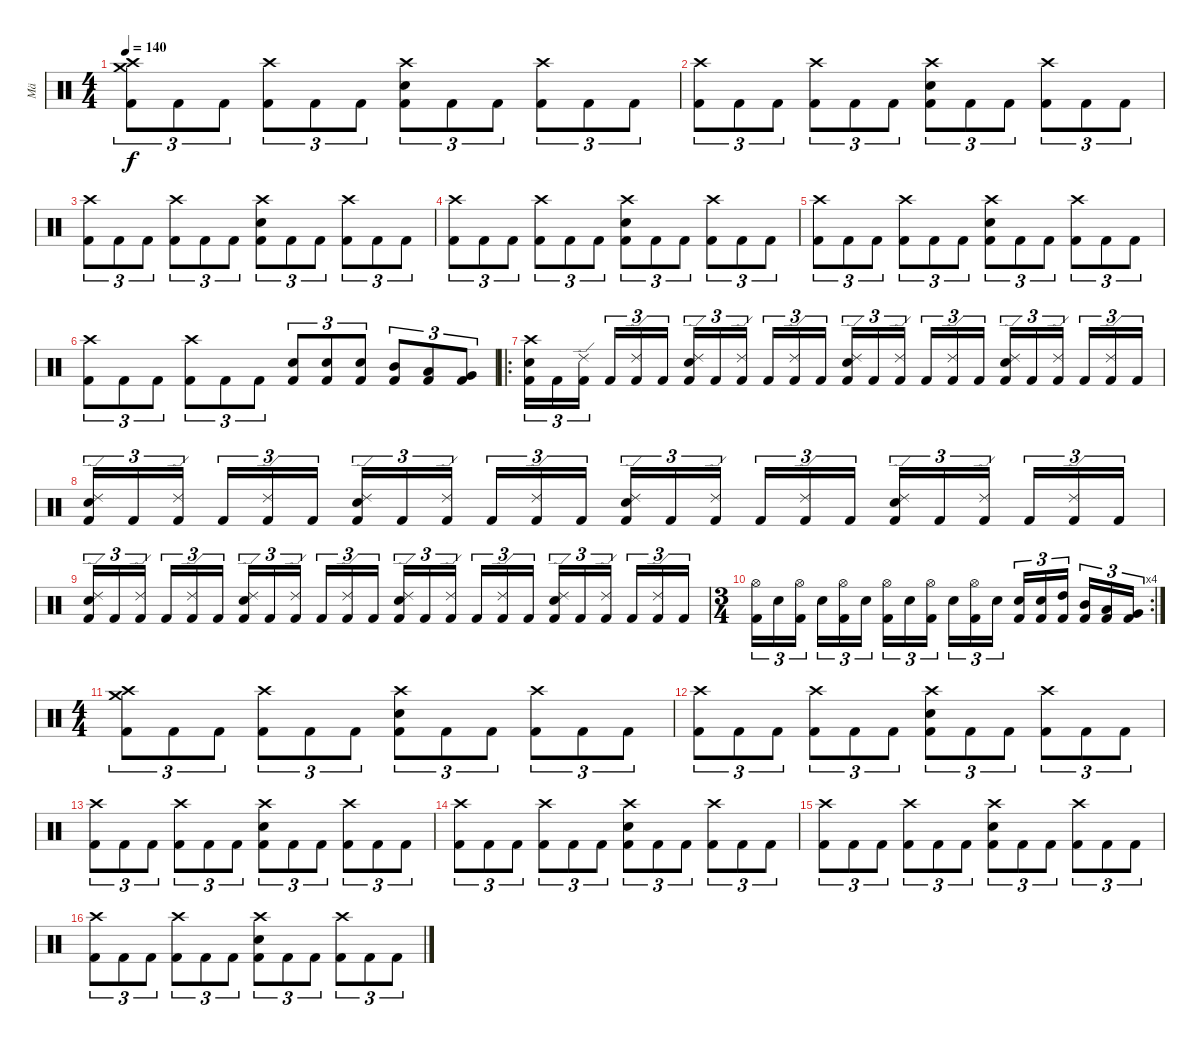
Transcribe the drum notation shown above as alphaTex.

\track ("Mä" "Mä") {instrument percussion}
\staff {score}
\articulation defaults
\ts (4 4)
\tempo 140
\clef neutral
\ks c
("Crash medium (hit)" "Crash high (hit)" "Kick (hit) 2").8{tu (3 2) dy f} "Kick (hit) 2".8{tu (3 2)} "Kick (hit) 2".8{tu (3 2)} ("Crash high (hit)" "Kick (hit) 2").8{tu (3 2)} "Kick (hit) 2".8{tu (3 2)} "Kick (hit) 2".8{tu (3 2)} ("Crash high (hit)" "Snare (hit) 2" "Kick (hit) 2").8{tu (3 2)} "Kick (hit) 2".8{tu (3 2)} "Kick (hit) 2".8{tu (3 2)} ("Crash high (hit)" "Kick (hit) 2").8{tu (3 2)} "Kick (hit) 2".8{tu (3 2)} "Kick (hit) 2".8{tu (3 2)} |
("Crash high (hit)" "Kick (hit) 2").8{tu (3 2)} "Kick (hit) 2".8{tu (3 2)} "Kick (hit) 2".8{tu (3 2)} ("Crash high (hit)" "Kick (hit) 2").8{tu (3 2)} "Kick (hit) 2".8{tu (3 2)} "Kick (hit) 2".8{tu (3 2)} ("Crash high (hit)" "Snare (hit) 2" "Kick (hit) 2").8{tu (3 2)} "Kick (hit) 2".8{tu (3 2)} "Kick (hit) 2".8{tu (3 2)} ("Crash high (hit)" "Kick (hit) 2").8{tu (3 2)} "Kick (hit) 2".8{tu (3 2)} "Kick (hit) 2".8{tu (3 2)} |
("Crash high (hit)" "Kick (hit) 2").8{tu (3 2)} "Kick (hit) 2".8{tu (3 2)} "Kick (hit) 2".8{tu (3 2)} ("Crash high (hit)" "Kick (hit) 2").8{tu (3 2)} "Kick (hit) 2".8{tu (3 2)} "Kick (hit) 2".8{tu (3 2)} ("Crash high (hit)" "Snare (hit) 2" "Kick (hit) 2").8{tu (3 2)} "Kick (hit) 2".8{tu (3 2)} "Kick (hit) 2".8{tu (3 2)} ("Crash high (hit)" "Kick (hit) 2").8{tu (3 2)} "Kick (hit) 2".8{tu (3 2)} "Kick (hit) 2".8{tu (3 2)} |
("Crash high (hit)" "Kick (hit) 2").8{tu (3 2)} "Kick (hit) 2".8{tu (3 2)} "Kick (hit) 2".8{tu (3 2)} ("Crash high (hit)" "Kick (hit) 2").8{tu (3 2)} "Kick (hit) 2".8{tu (3 2)} "Kick (hit) 2".8{tu (3 2)} ("Crash high (hit)" "Snare (hit) 2" "Kick (hit) 2").8{tu (3 2)} "Kick (hit) 2".8{tu (3 2)} "Kick (hit) 2".8{tu (3 2)} ("Crash high (hit)" "Kick (hit) 2").8{tu (3 2)} "Kick (hit) 2".8{tu (3 2)} "Kick (hit) 2".8{tu (3 2)} |
("Crash high (hit)" "Kick (hit) 2").8{tu (3 2)} "Kick (hit) 2".8{tu (3 2)} "Kick (hit) 2".8{tu (3 2)} ("Crash high (hit)" "Kick (hit) 2").8{tu (3 2)} "Kick (hit) 2".8{tu (3 2)} "Kick (hit) 2".8{tu (3 2)} ("Crash high (hit)" "Snare (hit) 2" "Kick (hit) 2").8{tu (3 2)} "Kick (hit) 2".8{tu (3 2)} "Kick (hit) 2".8{tu (3 2)} ("Crash high (hit)" "Kick (hit) 2").8{tu (3 2)} "Kick (hit) 2".8{tu (3 2)} "Kick (hit) 2".8{tu (3 2)} |
("Crash high (hit)" "Kick (hit) 2").8{tu (3 2)} "Kick (hit) 2".8{tu (3 2)} "Kick (hit) 2".8{tu (3 2)} ("Crash high (hit)" "Kick (hit) 2").8{tu (3 2)} "Kick (hit) 2".8{tu (3 2)} "Kick (hit) 2".8{tu (3 2)} ("Snare (hit) 2" "Kick (hit) 2").8{tu (3 2)} ("Snare (hit) 2" "Kick (hit) 2").8{tu (3 2)} ("Snare (hit) 2" "Kick (hit) 2").8{tu (3 2)} ("Mid Tom (hit)" "Kick (hit) 2").8{tu (3 2)} ("Low Tom (hit)" "Kick (hit) 2").8{tu (3 2)} ("Very Low Tom (hit)" "Kick (hit) 2").8{tu (3 2)} |
\ro
("Crash high (hit)" "Snare (hit) 2" "Kick (hit) 2").16{tu (3 2)} "Kick (hit) 2".16{tu (3 2)} ("Ride (edge) 2" "Kick (hit) 2").16{tu (3 2) beam splitsecondary} "Kick (hit) 2".16{tu (3 2)} ("Ride (edge) 2" "Kick (hit) 2").16{tu (3 2)} "Kick (hit) 2".16{tu (3 2)} ("Ride (edge) 2" "Snare (hit) 2" "Kick (hit) 2").16{tu (3 2)} "Kick (hit) 2".16{tu (3 2)} ("Ride (edge) 2" "Kick (hit) 2").16{tu (3 2) beam splitsecondary} "Kick (hit) 2".16{tu (3 2)} ("Ride (edge) 2" "Kick (hit) 2").16{tu (3 2)} "Kick (hit) 2".16{tu (3 2)} ("Ride (edge) 2" "Snare (hit) 2" "Kick (hit) 2").16{tu (3 2)} "Kick (hit) 2".16{tu (3 2)} ("Ride (edge) 2" "Kick (hit) 2").16{tu (3 2) beam splitsecondary} "Kick (hit) 2".16{tu (3 2)} ("Ride (edge) 2" "Kick (hit) 2").16{tu (3 2)} "Kick (hit) 2".16{tu (3 2)} ("Ride (edge) 2" "Snare (hit) 2" "Kick (hit) 2").16{tu (3 2)} "Kick (hit) 2".16{tu (3 2)} ("Ride (edge) 2" "Kick (hit) 2").16{tu (3 2) beam splitsecondary} "Kick (hit) 2".16{tu (3 2)} ("Ride (edge) 2" "Kick (hit) 2").16{tu (3 2)} "Kick (hit) 2".16{tu (3 2)} |
("Ride (edge) 2" "Snare (hit) 2" "Kick (hit) 2").16{tu (3 2)} "Kick (hit) 2".16{tu (3 2)} ("Ride (edge) 2" "Kick (hit) 2").16{tu (3 2) beam splitsecondary} "Kick (hit) 2".16{tu (3 2)} ("Ride (edge) 2" "Kick (hit) 2").16{tu (3 2)} "Kick (hit) 2".16{tu (3 2)} ("Ride (edge) 2" "Snare (hit) 2" "Kick (hit) 2").16{tu (3 2)} "Kick (hit) 2".16{tu (3 2)} ("Ride (edge) 2" "Kick (hit) 2").16{tu (3 2) beam splitsecondary} "Kick (hit) 2".16{tu (3 2)} ("Ride (edge) 2" "Kick (hit) 2").16{tu (3 2)} "Kick (hit) 2".16{tu (3 2)} ("Ride (edge) 2" "Snare (hit) 2" "Kick (hit) 2").16{tu (3 2)} "Kick (hit) 2".16{tu (3 2)} ("Ride (edge) 2" "Kick (hit) 2").16{tu (3 2) beam splitsecondary} "Kick (hit) 2".16{tu (3 2)} ("Ride (edge) 2" "Kick (hit) 2").16{tu (3 2)} "Kick (hit) 2".16{tu (3 2)} ("Ride (edge) 2" "Snare (hit) 2" "Kick (hit) 2").16{tu (3 2)} "Kick (hit) 2".16{tu (3 2)} ("Ride (edge) 2" "Kick (hit) 2").16{tu (3 2) beam splitsecondary} "Kick (hit) 2".16{tu (3 2)} ("Ride (edge) 2" "Kick (hit) 2").16{tu (3 2)} "Kick (hit) 2".16{tu (3 2)} |
("Ride (edge) 2" "Snare (hit) 2" "Kick (hit) 2").16{tu (3 2)} "Kick (hit) 2".16{tu (3 2)} ("Ride (edge) 2" "Kick (hit) 2").16{tu (3 2) beam splitsecondary} "Kick (hit) 2".16{tu (3 2)} ("Ride (edge) 2" "Kick (hit) 2").16{tu (3 2)} "Kick (hit) 2".16{tu (3 2)} ("Ride (edge) 2" "Snare (hit) 2" "Kick (hit) 2").16{tu (3 2)} "Kick (hit) 2".16{tu (3 2)} ("Ride (edge) 2" "Kick (hit) 2").16{tu (3 2) beam splitsecondary} "Kick (hit) 2".16{tu (3 2)} ("Ride (edge) 2" "Kick (hit) 2").16{tu (3 2)} "Kick (hit) 2".16{tu (3 2)} ("Ride (edge) 2" "Snare (hit) 2" "Kick (hit) 2").16{tu (3 2)} "Kick (hit) 2".16{tu (3 2)} ("Ride (edge) 2" "Kick (hit) 2").16{tu (3 2) beam splitsecondary} "Kick (hit) 2".16{tu (3 2)} ("Ride (edge) 2" "Kick (hit) 2").16{tu (3 2)} "Kick (hit) 2".16{tu (3 2)} ("Ride (edge) 2" "Snare (hit) 2" "Kick (hit) 2").16{tu (3 2)} "Kick (hit) 2".16{tu (3 2)} ("Ride (edge) 2" "Kick (hit) 2").16{tu (3 2) beam splitsecondary} "Kick (hit) 2".16{tu (3 2)} ("Ride (edge) 2" "Kick (hit) 2").16{tu (3 2)} "Kick (hit) 2".16{tu (3 2)} |
\rc 4
\ts (3 4)
("Hi-Hat (open)" "Kick (hit) 2").16{tu (3 2)} "Snare (hit) 2".16{tu (3 2)} ("Hi-Hat (open)" "Kick (hit) 2").16{tu (3 2) beam splitsecondary} "Snare (hit) 2".16{tu (3 2)} ("Hi-Hat (open)" "Kick (hit) 2").16{tu (3 2)} "Snare (hit) 2".16{tu (3 2)} ("Hi-Hat (open)" "Kick (hit) 2").16{tu (3 2)} "Snare (hit) 2".16{tu (3 2)} ("Hi-Hat (open)" "Kick (hit) 2").16{tu (3 2) beam splitsecondary} "Snare (hit) 2".16{tu (3 2)} ("Hi-Hat (open)" "Kick (hit) 2").16{tu (3 2)} "Snare (hit) 2".16{tu (3 2)} ("Snare (hit) 2" "Kick (hit) 2").16{tu (3 2)} ("Snare (hit) 2" "Kick (hit) 2").16{tu (3 2)} ("High Tom (hit)" "Kick (hit) 2").16{tu (3 2) beam splitsecondary} ("Mid Tom (hit)" "Kick (hit) 2").16{tu (3 2)} ("Low Tom (hit)" "Kick (hit) 2").16{tu (3 2)} ("Very Low Tom (hit)" "Kick (hit) 2").16{tu (3 2)} |
\ts (4 4)
("Crash medium (hit)" "Crash high (hit)" "Kick (hit) 2").8{tu (3 2)} "Kick (hit) 2".8{tu (3 2)} "Kick (hit) 2".8{tu (3 2)} ("Crash high (hit)" "Kick (hit) 2").8{tu (3 2)} "Kick (hit) 2".8{tu (3 2)} "Kick (hit) 2".8{tu (3 2)} ("Crash high (hit)" "Snare (hit) 2" "Kick (hit) 2").8{tu (3 2)} "Kick (hit) 2".8{tu (3 2)} "Kick (hit) 2".8{tu (3 2)} ("Crash high (hit)" "Kick (hit) 2").8{tu (3 2)} "Kick (hit) 2".8{tu (3 2)} "Kick (hit) 2".8{tu (3 2)} |
("Crash high (hit)" "Kick (hit) 2").8{tu (3 2)} "Kick (hit) 2".8{tu (3 2)} "Kick (hit) 2".8{tu (3 2)} ("Crash high (hit)" "Kick (hit) 2").8{tu (3 2)} "Kick (hit) 2".8{tu (3 2)} "Kick (hit) 2".8{tu (3 2)} ("Crash high (hit)" "Snare (hit) 2" "Kick (hit) 2").8{tu (3 2)} "Kick (hit) 2".8{tu (3 2)} "Kick (hit) 2".8{tu (3 2)} ("Crash high (hit)" "Kick (hit) 2").8{tu (3 2)} "Kick (hit) 2".8{tu (3 2)} "Kick (hit) 2".8{tu (3 2)} |
("Crash high (hit)" "Kick (hit) 2").8{tu (3 2)} "Kick (hit) 2".8{tu (3 2)} "Kick (hit) 2".8{tu (3 2)} ("Crash high (hit)" "Kick (hit) 2").8{tu (3 2)} "Kick (hit) 2".8{tu (3 2)} "Kick (hit) 2".8{tu (3 2)} ("Crash high (hit)" "Snare (hit) 2" "Kick (hit) 2").8{tu (3 2)} "Kick (hit) 2".8{tu (3 2)} "Kick (hit) 2".8{tu (3 2)} ("Crash high (hit)" "Kick (hit) 2").8{tu (3 2)} "Kick (hit) 2".8{tu (3 2)} "Kick (hit) 2".8{tu (3 2)} |
("Crash high (hit)" "Kick (hit) 2").8{tu (3 2)} "Kick (hit) 2".8{tu (3 2)} "Kick (hit) 2".8{tu (3 2)} ("Crash high (hit)" "Kick (hit) 2").8{tu (3 2)} "Kick (hit) 2".8{tu (3 2)} "Kick (hit) 2".8{tu (3 2)} ("Crash high (hit)" "Snare (hit) 2" "Kick (hit) 2").8{tu (3 2)} "Kick (hit) 2".8{tu (3 2)} "Kick (hit) 2".8{tu (3 2)} ("Crash high (hit)" "Kick (hit) 2").8{tu (3 2)} "Kick (hit) 2".8{tu (3 2)} "Kick (hit) 2".8{tu (3 2)} |
("Crash high (hit)" "Kick (hit) 2").8{tu (3 2)} "Kick (hit) 2".8{tu (3 2)} "Kick (hit) 2".8{tu (3 2)} ("Crash high (hit)" "Kick (hit) 2").8{tu (3 2)} "Kick (hit) 2".8{tu (3 2)} "Kick (hit) 2".8{tu (3 2)} ("Crash high (hit)" "Snare (hit) 2" "Kick (hit) 2").8{tu (3 2)} "Kick (hit) 2".8{tu (3 2)} "Kick (hit) 2".8{tu (3 2)} ("Crash high (hit)" "Kick (hit) 2").8{tu (3 2)} "Kick (hit) 2".8{tu (3 2)} "Kick (hit) 2".8{tu (3 2)} |
("Crash high (hit)" "Kick (hit) 2").8{tu (3 2)} "Kick (hit) 2".8{tu (3 2)} "Kick (hit) 2".8{tu (3 2)} ("Crash high (hit)" "Kick (hit) 2").8{tu (3 2)} "Kick (hit) 2".8{tu (3 2)} "Kick (hit) 2".8{tu (3 2)} ("Crash high (hit)" "Snare (hit) 2" "Kick (hit) 2").8{tu (3 2)} "Kick (hit) 2".8{tu (3 2)} "Kick (hit) 2".8{tu (3 2)} ("Crash high (hit)" "Kick (hit) 2").8{tu (3 2)} "Kick (hit) 2".8{tu (3 2)} "Kick (hit) 2".8{tu (3 2)}
